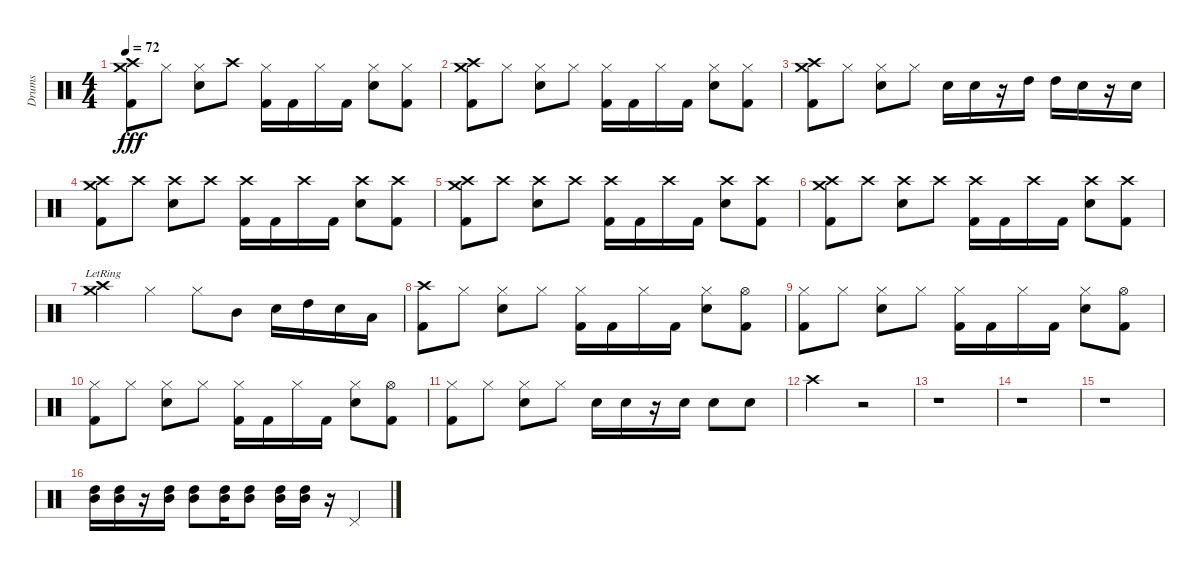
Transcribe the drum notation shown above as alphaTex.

\track ("Drums" "Drums") {instrument percussion}
\staff {score}
\articulation defaults
\ts (4 4)
\tempo 72
\clef neutral
\ks c
("Crash high (hit)" "Crash medium (hit)" "Kick (hit) 2").8{dy fff} "Hi-Hat (closed)".8 ("Hi-Hat (closed)" "Electric Snare (hit)").8 "Crash high (hit)".8 ("Hi-Hat (closed)" "Kick (hit) 2").16 "Kick (hit) 2".16 "Hi-Hat (closed)".16 "Kick (hit) 2".16 ("Hi-Hat (closed)" "Electric Snare (hit)").8 ("Hi-Hat (closed)" "Kick (hit) 2").8 |
("Crash high (hit)" "Crash medium (hit)" "Kick (hit) 2").8 "Hi-Hat (closed)".8 ("Hi-Hat (closed)" "Electric Snare (hit)").8 "Hi-Hat (closed)".8 ("Hi-Hat (closed)" "Kick (hit) 2").16 "Kick (hit) 2".16 "Hi-Hat (closed)".16 "Kick (hit) 2".16 ("Hi-Hat (closed)" "Electric Snare (hit)").8 ("Hi-Hat (closed)" "Kick (hit) 2").8 |
("Crash high (hit)" "Crash medium (hit)" "Kick (hit) 2").8 "Hi-Hat (closed)".8 ("Hi-Hat (closed)" "Electric Snare (hit)").8 "Hi-Hat (closed)".8 "Electric Snare (hit)".16 "Electric Snare (hit)".16 r.16 "High Tom (hit)".16 "High Tom (hit)".16 "Electric Snare (hit)".16 r.16 "Electric Snare (hit)".16 |
("Crash high (hit)" "Crash medium (hit)" "Kick (hit) 2").8 "Crash high (hit)".8 ("Crash high (hit)" "Electric Snare (hit)").8 "Crash high (hit)".8 ("Crash high (hit)" "Kick (hit) 2").16 "Kick (hit) 2".16 "Crash high (hit)".16 "Kick (hit) 2".16 ("Crash high (hit)" "Electric Snare (hit)").8 ("Crash high (hit)" "Kick (hit) 2").8 |
("Crash high (hit)" "Crash medium (hit)" "Kick (hit) 2").8 "Crash high (hit)".8 ("Crash high (hit)" "Electric Snare (hit)").8 "Crash high (hit)".8 ("Crash high (hit)" "Kick (hit) 2").16 "Kick (hit) 2".16 "Crash high (hit)".16 "Kick (hit) 2".16 ("Crash high (hit)" "Electric Snare (hit)").8 ("Crash high (hit)" "Kick (hit) 2").8 |
("Crash high (hit)" "Crash medium (hit)" "Kick (hit) 2").8 "Crash high (hit)".8 ("Crash high (hit)" "Electric Snare (hit)").8 "Crash high (hit)".8 ("Crash high (hit)" "Kick (hit) 2").16 "Kick (hit) 2".16 "Crash high (hit)".16 "Kick (hit) 2".16 ("Crash high (hit)" "Electric Snare (hit)").8 ("Crash high (hit)" "Kick (hit) 2").8 |
("Crash high (hit)"{lr} "Crash medium (hit)"{lr}).4 "Hi-Hat (closed)".4 "Hi-Hat (closed)".8 "Mid Tom (hit)".8 "Electric Snare (hit)".16 "High Tom (hit)".16 "Electric Snare (hit)".16 "Low Tom (hit)".16 |
("Crash high (hit)" "Kick (hit) 2").8 "Hi-Hat (closed)".8 ("Hi-Hat (closed)" "Electric Snare (hit)").8 "Hi-Hat (closed)".8 ("Hi-Hat (closed)" "Kick (hit) 2").16 "Kick (hit) 2".16 "Hi-Hat (closed)".16 "Kick (hit) 2".16 ("Hi-Hat (closed)" "Electric Snare (hit)").8 ("Hi-Hat (open)" "Kick (hit) 2").8 |
("Hi-Hat (closed)" "Kick (hit) 2").8 "Hi-Hat (closed)".8 ("Hi-Hat (closed)" "Electric Snare (hit)").8 "Hi-Hat (closed)".8 ("Hi-Hat (closed)" "Kick (hit) 2").16 "Kick (hit) 2".16 "Hi-Hat (closed)".16 "Kick (hit) 2".16 ("Hi-Hat (closed)" "Electric Snare (hit)").8 ("Hi-Hat (open)" "Kick (hit) 2").8 |
("Hi-Hat (closed)" "Kick (hit) 2").8 "Hi-Hat (closed)".8 ("Hi-Hat (closed)" "Electric Snare (hit)").8 "Hi-Hat (closed)".8 ("Hi-Hat (closed)" "Kick (hit) 2").16 "Kick (hit) 2".16 "Hi-Hat (closed)".16 "Kick (hit) 2".16 ("Hi-Hat (closed)" "Electric Snare (hit)").8 ("Hi-Hat (open)" "Kick (hit) 2").8 |
("Hi-Hat (closed)" "Kick (hit) 2").8 "Hi-Hat (closed)".8 ("Hi-Hat (closed)" "Electric Snare (hit)").8 "Hi-Hat (closed)".8 "Electric Snare (hit)".16 "Electric Snare (hit)".16 r.16 "Electric Snare (hit)".16 "Electric Snare (hit)".8 "Electric Snare (hit)".8 |
"Crash high (hit)".2 r.2 |
r.1 |
r.1 |
r.1 |
("Mid Tom (hit)" "High Tom (hit)").16 ("Mid Tom (hit)" "High Tom (hit)").16 r.16 ("Mid Tom (hit)" "High Tom (hit)").16 ("Mid Tom (hit)" "High Tom (hit)").8 ("Mid Tom (hit)" "High Tom (hit)").16 ("Mid Tom (hit)" "High Tom (hit)").8 ("Mid Tom (hit)" "High Tom (hit)").16 ("Mid Tom (hit)" "High Tom (hit)").16 r.16 "Pedal Hi-Hat (hit)".4
